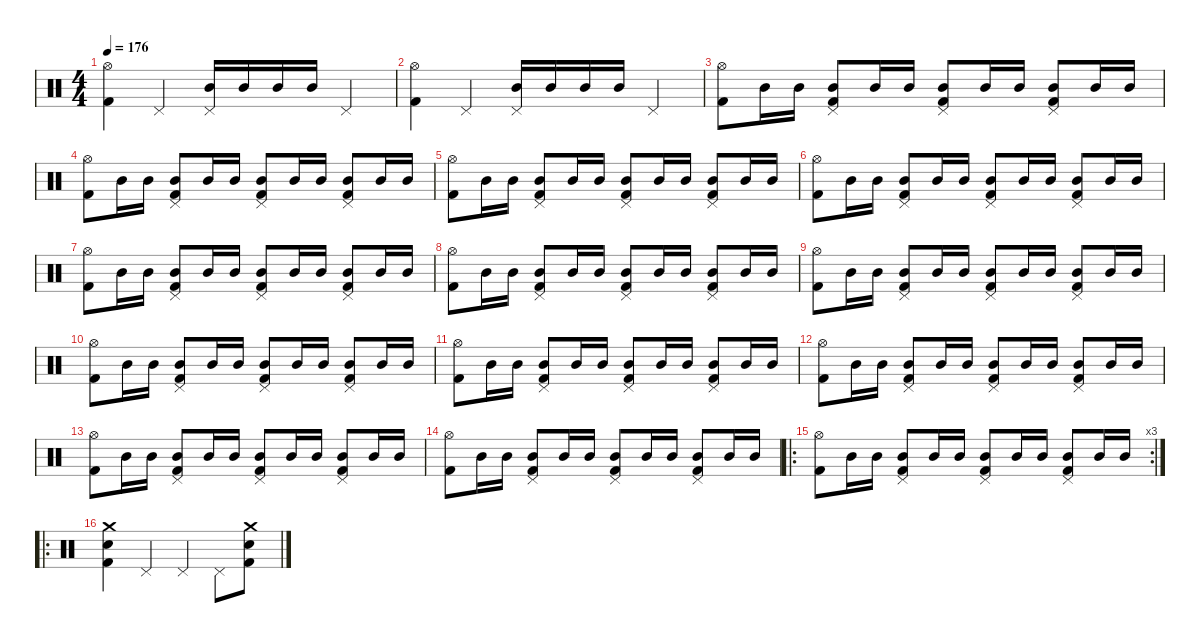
\defaultSystemsLayout 4
\hideDynamics
\bracketExtendMode nobrackets
\singleTrackTrackNamePolicy hidden
\multiTrackTrackNamePolicy hidden
\firstSystemTrackNameMode fullname
\firstSystemTrackNameOrientation horizontal
\otherSystemsTrackNameOrientation horizontal
\track ("Bill Ward" "drm.") {instrument percussion}
\staff {score}
\articulation defaults
\ts (4 4)
\tempo 176
\clef neutral
\ks c
("Hi-Hat (open)" "Kick (hit) 2").4{dy f beam Down} "Pedal Hi-Hat (hit)".4{beam Up} ("Pedal Hi-Hat (hit)" "Mid Tom (hit)").16{beam Up} "Mid Tom (hit)".16{beam Up} "Mid Tom (hit)".16{beam Up} "Mid Tom (hit)".16{beam Up} "Pedal Hi-Hat (hit)".4{beam Up} |
("Hi-Hat (open)" "Kick (hit) 2").4{beam Down} "Pedal Hi-Hat (hit)".4{beam Up} ("Pedal Hi-Hat (hit)" "Mid Tom (hit)").16{beam Up} "Mid Tom (hit)".16{beam Up} "Mid Tom (hit)".16{beam Up} "Mid Tom (hit)".16{beam Up} "Pedal Hi-Hat (hit)".4{beam Up} |
("Hi-Hat (open)" "Kick (hit) 2").8{beam Down} "Mid Tom (hit)".16{beam Down} "Mid Tom (hit)".16{beam Down} ("Pedal Hi-Hat (hit)" "Mid Tom (hit)" "Kick (hit) 2").8{beam Up} "Mid Tom (hit)".16{beam Up} "Mid Tom (hit)".16{beam Up} ("Pedal Hi-Hat (hit)" "Mid Tom (hit)" "Kick (hit) 2").8{beam Up} "Mid Tom (hit)".16{beam Up} "Mid Tom (hit)".16{beam Up} ("Pedal Hi-Hat (hit)" "Mid Tom (hit)" "Kick (hit) 2").8{beam Up} "Mid Tom (hit)".16{beam Up} "Mid Tom (hit)".16{beam Up} |
("Hi-Hat (open)" "Kick (hit) 2").8{beam Down} "Mid Tom (hit)".16{beam Down} "Mid Tom (hit)".16{beam Down} ("Pedal Hi-Hat (hit)" "Mid Tom (hit)" "Kick (hit) 2").8{beam Up} "Mid Tom (hit)".16{beam Up} "Mid Tom (hit)".16{beam Up} ("Pedal Hi-Hat (hit)" "Mid Tom (hit)" "Kick (hit) 2").8{beam Up} "Mid Tom (hit)".16{beam Up} "Mid Tom (hit)".16{beam Up} ("Pedal Hi-Hat (hit)" "Mid Tom (hit)" "Kick (hit) 2").8{beam Up} "Mid Tom (hit)".16{beam Up} "Mid Tom (hit)".16{beam Up} |
("Hi-Hat (open)" "Kick (hit) 2").8{beam Down} "Mid Tom (hit)".16{beam Down} "Mid Tom (hit)".16{beam Down} ("Pedal Hi-Hat (hit)" "Mid Tom (hit)" "Kick (hit) 2").8{beam Up} "Mid Tom (hit)".16{beam Up} "Mid Tom (hit)".16{beam Up} ("Pedal Hi-Hat (hit)" "Mid Tom (hit)" "Kick (hit) 2").8{beam Up} "Mid Tom (hit)".16{beam Up} "Mid Tom (hit)".16{beam Up} ("Pedal Hi-Hat (hit)" "Mid Tom (hit)" "Kick (hit) 2").8{beam Up} "Mid Tom (hit)".16{beam Up} "Mid Tom (hit)".16{beam Up} |
("Hi-Hat (open)" "Kick (hit) 2").8{beam Down} "Mid Tom (hit)".16{beam Down} "Mid Tom (hit)".16{beam Down} ("Pedal Hi-Hat (hit)" "Mid Tom (hit)" "Kick (hit) 2").8{beam Up} "Mid Tom (hit)".16{beam Up} "Mid Tom (hit)".16{beam Up} ("Pedal Hi-Hat (hit)" "Mid Tom (hit)" "Kick (hit) 2").8{beam Up} "Mid Tom (hit)".16{beam Up} "Mid Tom (hit)".16{beam Up} ("Pedal Hi-Hat (hit)" "Mid Tom (hit)" "Kick (hit) 2").8{beam Up} "Mid Tom (hit)".16{beam Up} "Mid Tom (hit)".16{beam Up} |
("Hi-Hat (open)" "Kick (hit) 2").8{beam Down} "Mid Tom (hit)".16{beam Down} "Mid Tom (hit)".16{beam Down} ("Pedal Hi-Hat (hit)" "Mid Tom (hit)" "Kick (hit) 2").8{beam Up} "Mid Tom (hit)".16{beam Up} "Mid Tom (hit)".16{beam Up} ("Pedal Hi-Hat (hit)" "Mid Tom (hit)" "Kick (hit) 2").8{beam Up} "Mid Tom (hit)".16{beam Up} "Mid Tom (hit)".16{beam Up} ("Pedal Hi-Hat (hit)" "Mid Tom (hit)" "Kick (hit) 2").8{beam Up} "Mid Tom (hit)".16{beam Up} "Mid Tom (hit)".16{beam Up} |
("Hi-Hat (open)" "Kick (hit) 2").8{beam Down} "Mid Tom (hit)".16{beam Down} "Mid Tom (hit)".16{beam Down} ("Pedal Hi-Hat (hit)" "Mid Tom (hit)" "Kick (hit) 2").8{beam Up} "Mid Tom (hit)".16{beam Up} "Mid Tom (hit)".16{beam Up} ("Pedal Hi-Hat (hit)" "Mid Tom (hit)" "Kick (hit) 2").8{beam Up} "Mid Tom (hit)".16{beam Up} "Mid Tom (hit)".16{beam Up} ("Pedal Hi-Hat (hit)" "Mid Tom (hit)" "Kick (hit) 2").8{beam Up} "Mid Tom (hit)".16{beam Up} "Mid Tom (hit)".16{beam Up} |
("Hi-Hat (open)" "Kick (hit) 2").8{beam Down} "Mid Tom (hit)".16{beam Down} "Mid Tom (hit)".16{beam Down} ("Pedal Hi-Hat (hit)" "Mid Tom (hit)" "Kick (hit) 2").8{beam Up} "Mid Tom (hit)".16{beam Up} "Mid Tom (hit)".16{beam Up} ("Pedal Hi-Hat (hit)" "Mid Tom (hit)" "Kick (hit) 2").8{beam Up} "Mid Tom (hit)".16{beam Up} "Mid Tom (hit)".16{beam Up} ("Pedal Hi-Hat (hit)" "Mid Tom (hit)" "Kick (hit) 2").8{beam Up} "Mid Tom (hit)".16{beam Up} "Mid Tom (hit)".16{beam Up} |
("Hi-Hat (open)" "Kick (hit) 2").8{beam Down} "Mid Tom (hit)".16{beam Down} "Mid Tom (hit)".16{beam Down} ("Pedal Hi-Hat (hit)" "Mid Tom (hit)" "Kick (hit) 2").8{beam Up} "Mid Tom (hit)".16{beam Up} "Mid Tom (hit)".16{beam Up} ("Pedal Hi-Hat (hit)" "Mid Tom (hit)" "Kick (hit) 2").8{beam Up} "Mid Tom (hit)".16{beam Up} "Mid Tom (hit)".16{beam Up} ("Pedal Hi-Hat (hit)" "Mid Tom (hit)" "Kick (hit) 2").8{beam Up} "Mid Tom (hit)".16{beam Up} "Mid Tom (hit)".16{beam Up} |
("Hi-Hat (open)" "Kick (hit) 2").8{beam Down} "Mid Tom (hit)".16{beam Down} "Mid Tom (hit)".16{beam Down} ("Pedal Hi-Hat (hit)" "Mid Tom (hit)" "Kick (hit) 2").8{beam Up} "Mid Tom (hit)".16{beam Up} "Mid Tom (hit)".16{beam Up} ("Pedal Hi-Hat (hit)" "Mid Tom (hit)" "Kick (hit) 2").8{beam Up} "Mid Tom (hit)".16{beam Up} "Mid Tom (hit)".16{beam Up} ("Pedal Hi-Hat (hit)" "Mid Tom (hit)" "Kick (hit) 2").8{beam Up} "Mid Tom (hit)".16{beam Up} "Mid Tom (hit)".16{beam Up} |
("Hi-Hat (open)" "Kick (hit) 2").8{beam Down} "Mid Tom (hit)".16{beam Down} "Mid Tom (hit)".16{beam Down} ("Pedal Hi-Hat (hit)" "Mid Tom (hit)" "Kick (hit) 2").8{beam Up} "Mid Tom (hit)".16{beam Up} "Mid Tom (hit)".16{beam Up} ("Pedal Hi-Hat (hit)" "Mid Tom (hit)" "Kick (hit) 2").8{beam Up} "Mid Tom (hit)".16{beam Up} "Mid Tom (hit)".16{beam Up} ("Pedal Hi-Hat (hit)" "Mid Tom (hit)" "Kick (hit) 2").8{beam Up} "Mid Tom (hit)".16{beam Up} "Mid Tom (hit)".16{beam Up} |
("Hi-Hat (open)" "Kick (hit) 2").8{beam Down} "Mid Tom (hit)".16{beam Down} "Mid Tom (hit)".16{beam Down} ("Pedal Hi-Hat (hit)" "Mid Tom (hit)" "Kick (hit) 2").8{beam Up} "Mid Tom (hit)".16{beam Up} "Mid Tom (hit)".16{beam Up} ("Pedal Hi-Hat (hit)" "Mid Tom (hit)" "Kick (hit) 2").8{beam Up} "Mid Tom (hit)".16{beam Up} "Mid Tom (hit)".16{beam Up} ("Pedal Hi-Hat (hit)" "Mid Tom (hit)" "Kick (hit) 2").8{beam Up} "Mid Tom (hit)".16{beam Up} "Mid Tom (hit)".16{beam Up} |
("Hi-Hat (open)" "Kick (hit) 2").8{beam Down} "Mid Tom (hit)".16{beam Down} "Mid Tom (hit)".16{beam Down} ("Pedal Hi-Hat (hit)" "Mid Tom (hit)" "Kick (hit) 2").8{beam Up} "Mid Tom (hit)".16{beam Up} "Mid Tom (hit)".16{beam Up} ("Pedal Hi-Hat (hit)" "Mid Tom (hit)" "Kick (hit) 2").8{beam Up} "Mid Tom (hit)".16{beam Up} "Mid Tom (hit)".16{beam Up} ("Pedal Hi-Hat (hit)" "Mid Tom (hit)" "Kick (hit) 2").8{beam Up} "Mid Tom (hit)".16{beam Up} "Mid Tom (hit)".16{beam Up} |
\ro
\rc 3
("Hi-Hat (open)" "Kick (hit) 2").8{beam Down} "Mid Tom (hit)".16{beam Down} "Mid Tom (hit)".16{beam Down} ("Pedal Hi-Hat (hit)" "Mid Tom (hit)" "Kick (hit) 2").8{beam Up} "Mid Tom (hit)".16{beam Up} "Mid Tom (hit)".16{beam Up} ("Pedal Hi-Hat (hit)" "Mid Tom (hit)" "Kick (hit) 2").8{beam Up} "Mid Tom (hit)".16{beam Up} "Mid Tom (hit)".16{beam Up} ("Pedal Hi-Hat (hit)" "Mid Tom (hit)" "Kick (hit) 2").8{beam Up} "Mid Tom (hit)".16{beam Up} "Mid Tom (hit)".16{beam Up} |
\ro
("Crash medium (hit)" "Snare (hit) 2" "Kick (hit) 2").4{beam Down} "Pedal Hi-Hat (hit)".4{beam Up} "Pedal Hi-Hat (hit)".4{beam Up} "Pedal Hi-Hat (hit)".8{beam Down} ("Crash medium (hit)" "Snare (hit) 2" "Kick (hit) 2").8{beam Down}
